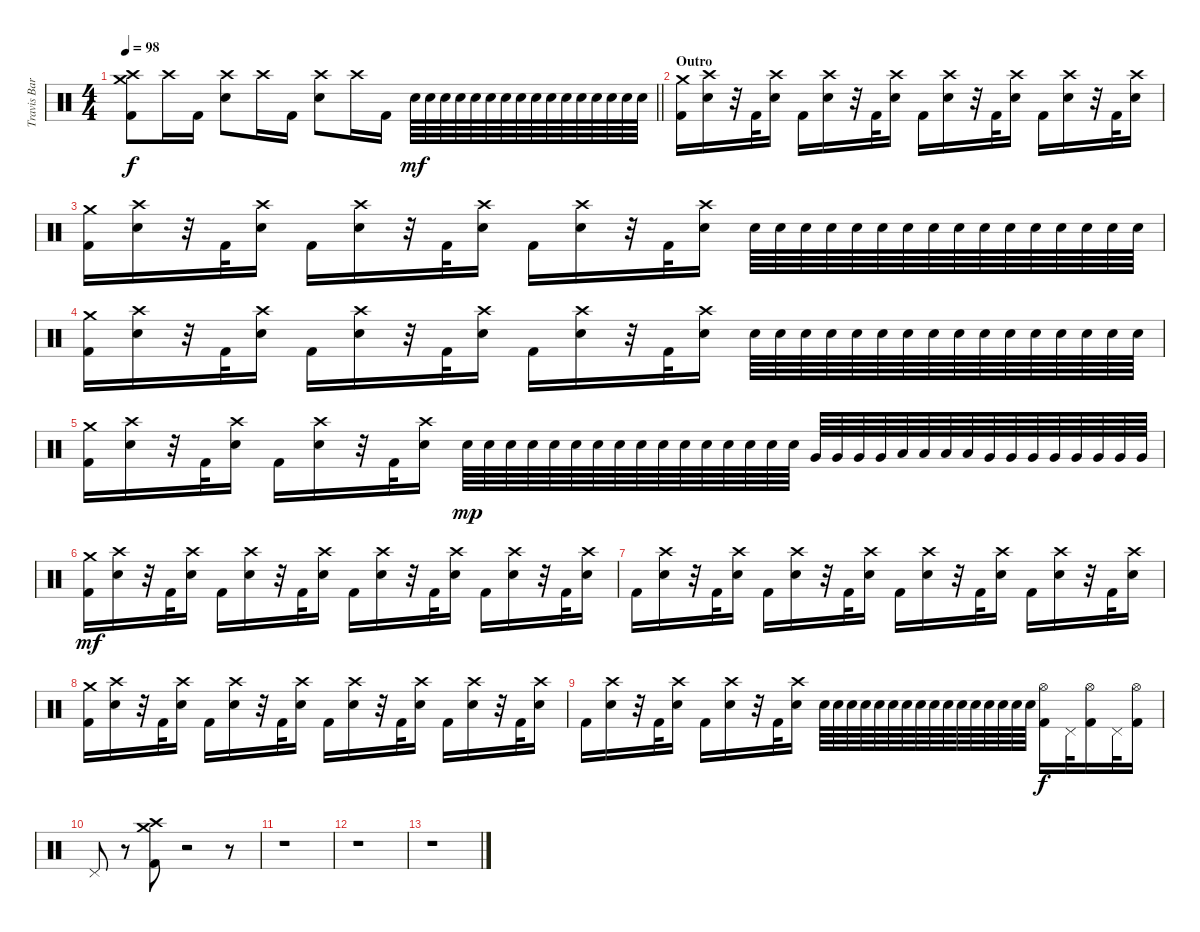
\track ("Travis Barker" "Travis Bar") {instrument percussion}
\staff {score}
\articulation defaults
\ts (4 4)
\tempo 98
\clef neutral
\barLineRight lightlight
\ks c
("Crash medium (hit)" "Crash high (hit)" "Kick (hit) 2").8{dy f} "Crash high (hit)".16 "Kick (hit) 2".16 ("Crash high (hit)" "Electric Snare (hit)").8 "Crash high (hit)".16 "Kick (hit) 2".16 ("Crash high (hit)" "Electric Snare (hit)").8 "Crash high (hit)".16 "Kick (hit) 2".16 "Electric Snare (hit)".64{dy mf} "Electric Snare (hit)".64 "Electric Snare (hit)".64 "Electric Snare (hit)".64 "Electric Snare (hit)".64 "Electric Snare (hit)".64 "Electric Snare (hit)".64 "Electric Snare (hit)".64 "Electric Snare (hit)".64 "Electric Snare (hit)".64 "Electric Snare (hit)".64 "Electric Snare (hit)".64 "Electric Snare (hit)".64 "Electric Snare (hit)".64 "Electric Snare (hit)".64 "Electric Snare (hit)".64 |
\section ("" "Outro")
("Crash medium (hit)" "Kick (hit) 2").16 ("Crash high (hit)" "Electric Snare (hit)").16 r.32 "Kick (hit) 2".32 ("Crash high (hit)" "Electric Snare (hit)").16 "Kick (hit) 2".16 ("Crash high (hit)" "Electric Snare (hit)").16 r.32 "Kick (hit) 2".32 ("Crash high (hit)" "Electric Snare (hit)").16 "Kick (hit) 2".16 ("Crash high (hit)" "Electric Snare (hit)").16 r.32 "Kick (hit) 2".32 ("Crash high (hit)" "Electric Snare (hit)").16 "Kick (hit) 2".16 ("Crash high (hit)" "Electric Snare (hit)").16 r.32 "Kick (hit) 2".32 ("Crash high (hit)" "Electric Snare (hit)").16 |
("Crash medium (hit)" "Kick (hit) 2").16 ("Crash high (hit)" "Electric Snare (hit)").16 r.32 "Kick (hit) 2".32 ("Crash high (hit)" "Electric Snare (hit)").16 "Kick (hit) 2".16 ("Crash high (hit)" "Electric Snare (hit)").16 r.32 "Kick (hit) 2".32 ("Crash high (hit)" "Electric Snare (hit)").16 "Kick (hit) 2".16 ("Crash high (hit)" "Electric Snare (hit)").16 r.32 "Kick (hit) 2".32 ("Crash high (hit)" "Electric Snare (hit)").16 "Electric Snare (hit)".64 "Electric Snare (hit)".64 "Electric Snare (hit)".64 "Electric Snare (hit)".64 "Electric Snare (hit)".64 "Electric Snare (hit)".64 "Electric Snare (hit)".64 "Electric Snare (hit)".64 "Electric Snare (hit)".64 "Electric Snare (hit)".64 "Electric Snare (hit)".64 "Electric Snare (hit)".64 "Electric Snare (hit)".64 "Electric Snare (hit)".64 "Electric Snare (hit)".64 "Electric Snare (hit)".64 |
("Crash medium (hit)" "Kick (hit) 2").16 ("Crash high (hit)" "Electric Snare (hit)").16 r.32 "Kick (hit) 2".32 ("Crash high (hit)" "Electric Snare (hit)").16 "Kick (hit) 2".16 ("Crash high (hit)" "Electric Snare (hit)").16 r.32 "Kick (hit) 2".32 ("Crash high (hit)" "Electric Snare (hit)").16 "Kick (hit) 2".16 ("Crash high (hit)" "Electric Snare (hit)").16 r.32 "Kick (hit) 2".32 ("Crash high (hit)" "Electric Snare (hit)").16 "Electric Snare (hit)".64 "Electric Snare (hit)".64 "Electric Snare (hit)".64 "Electric Snare (hit)".64 "Electric Snare (hit)".64 "Electric Snare (hit)".64 "Electric Snare (hit)".64 "Electric Snare (hit)".64 "Electric Snare (hit)".64 "Electric Snare (hit)".64 "Electric Snare (hit)".64 "Electric Snare (hit)".64 "Electric Snare (hit)".64 "Electric Snare (hit)".64 "Electric Snare (hit)".64 "Electric Snare (hit)".64 |
("Crash medium (hit)" "Kick (hit) 2").16 ("Crash high (hit)" "Electric Snare (hit)").16 r.32 "Kick (hit) 2".32 ("Crash high (hit)" "Electric Snare (hit)").16 "Kick (hit) 2".16 ("Crash high (hit)" "Electric Snare (hit)").16 r.32 "Kick (hit) 2".32 ("Crash high (hit)" "Electric Snare (hit)").16 "Electric Snare (hit)".64{dy mp} "Electric Snare (hit)".64 "Electric Snare (hit)".64 "Electric Snare (hit)".64 "Electric Snare (hit)".64 "Electric Snare (hit)".64 "Electric Snare (hit)".64 "Electric Snare (hit)".64 "Electric Snare (hit)".64 "Electric Snare (hit)".64 "Electric Snare (hit)".64 "Electric Snare (hit)".64 "Electric Snare (hit)".64 "Electric Snare (hit)".64 "Electric Snare (hit)".64 "Electric Snare (hit)".64 "Very Low Tom (hit)".64 "Very Low Tom (hit)".64 "Very Low Tom (hit)".64 "Very Low Tom (hit)".64 "Low Tom (hit)".64 "Low Tom (hit)".64 "Low Tom (hit)".64 "Low Tom (hit)".64 "Very Low Tom (hit)".64 "Very Low Tom (hit)".64 "Very Low Tom (hit)".64 "Very Low Tom (hit)".64 "Very Low Tom (hit)".64 "Very Low Tom (hit)".64 "Very Low Tom (hit)".64 "Very Low Tom (hit)".64 |
("Crash medium (hit)" "Kick (hit) 2").16{dy mf} ("Crash high (hit)" "Electric Snare (hit)").16 r.32 "Kick (hit) 2".32 ("Crash high (hit)" "Electric Snare (hit)").16 "Kick (hit) 2".16 ("Crash high (hit)" "Electric Snare (hit)").16 r.32 "Kick (hit) 2".32 ("Crash high (hit)" "Electric Snare (hit)").16 "Kick (hit) 2".16 ("Crash high (hit)" "Electric Snare (hit)").16 r.32 "Kick (hit) 2".32 ("Crash high (hit)" "Electric Snare (hit)").16 "Kick (hit) 2".16 ("Crash high (hit)" "Electric Snare (hit)").16 r.32 "Kick (hit) 2".32 ("Crash high (hit)" "Electric Snare (hit)").16 |
"Kick (hit) 2".16 ("Crash high (hit)" "Electric Snare (hit)").16 r.32 "Kick (hit) 2".32 ("Crash high (hit)" "Electric Snare (hit)").16 "Kick (hit) 2".16 ("Crash high (hit)" "Electric Snare (hit)").16 r.32 "Kick (hit) 2".32 ("Crash high (hit)" "Electric Snare (hit)").16 "Kick (hit) 2".16 ("Crash high (hit)" "Electric Snare (hit)").16 r.32 "Kick (hit) 2".32 ("Crash high (hit)" "Electric Snare (hit)").16 "Kick (hit) 2".16 ("Crash high (hit)" "Electric Snare (hit)").16 r.32 "Kick (hit) 2".32 ("Crash high (hit)" "Electric Snare (hit)").16 |
("Crash medium (hit)" "Kick (hit) 2").16 ("Crash high (hit)" "Electric Snare (hit)").16 r.32 "Kick (hit) 2".32 ("Crash high (hit)" "Electric Snare (hit)").16 "Kick (hit) 2".16 ("Crash high (hit)" "Electric Snare (hit)").16 r.32 "Kick (hit) 2".32 ("Crash high (hit)" "Electric Snare (hit)").16 "Kick (hit) 2".16 ("Crash high (hit)" "Electric Snare (hit)").16 r.32 "Kick (hit) 2".32 ("Crash high (hit)" "Electric Snare (hit)").16 "Kick (hit) 2".16 ("Crash high (hit)" "Electric Snare (hit)").16 r.32 "Kick (hit) 2".32 ("Crash high (hit)" "Electric Snare (hit)").16 |
"Kick (hit) 2".16 ("Crash high (hit)" "Electric Snare (hit)").16 r.32 "Kick (hit) 2".32 ("Crash high (hit)" "Electric Snare (hit)").16 "Kick (hit) 2".16 ("Crash high (hit)" "Electric Snare (hit)").16 r.32 "Kick (hit) 2".32 ("Crash high (hit)" "Electric Snare (hit)").16 "Electric Snare (hit)".64 "Electric Snare (hit)".64 "Electric Snare (hit)".64 "Electric Snare (hit)".64 "Electric Snare (hit)".64 "Electric Snare (hit)".64 "Electric Snare (hit)".64 "Electric Snare (hit)".64 "Electric Snare (hit)".64 "Electric Snare (hit)".64 "Electric Snare (hit)".64 "Electric Snare (hit)".64 "Electric Snare (hit)".64 "Electric Snare (hit)".64 "Electric Snare (hit)".64 "Electric Snare (hit)".64 ("Hi-Hat (open)" "Kick (hit) 2").16{dy f} "Pedal Hi-Hat (hit)".32 ("Hi-Hat (open)" "Kick (hit) 2").16 "Pedal Hi-Hat (hit)".32 ("Hi-Hat (open)" "Kick (hit) 2").16 |
"Pedal Hi-Hat (hit)".8 r.8 ("Crash medium (hit)" "Crash high (hit)" "Kick (hit) 2").8 r.2 r.8 |
r.1 |
r.1 |
r.1
